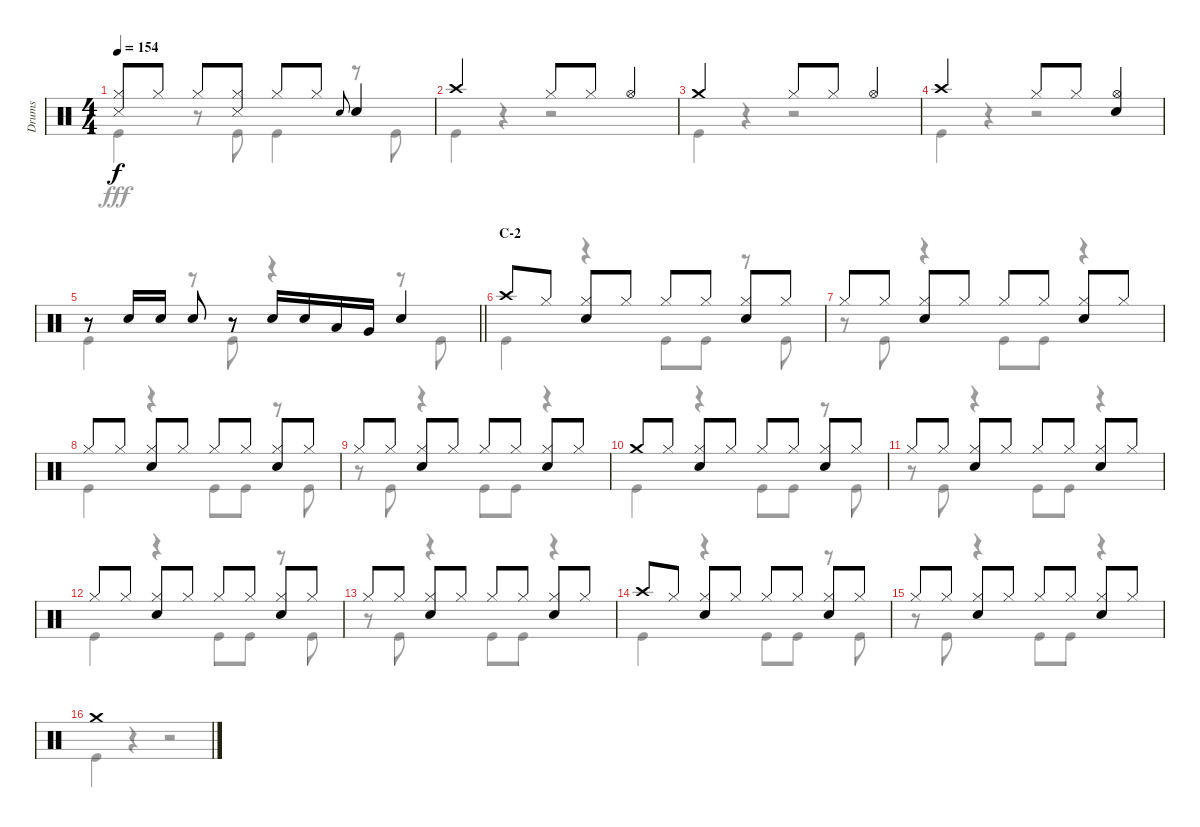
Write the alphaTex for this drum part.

\track ("Drums" "Drums") {instrument percussion}
\staff {score}
\articulation defaults
\voice
\ts (4 4)
\tempo 154
\clef neutral
\ks c
("Hi-Hat (closed)" "Snare (side stick) 3").8{dy f} "Hi-Hat (closed)".8 "Hi-Hat (closed)".8 ("Hi-Hat (closed)" "Snare (side stick) 3").8 "Hi-Hat (closed)".8 "Hi-Hat (closed)".8 "Snare (hit) 2".8{gr onbeat} "Snare (hit) 2".4 |
"Crash high (hit)".2 "Hi-Hat (closed)".8 "Hi-Hat (closed)".8 "Hi-Hat (open)".4 |
"Crash medium (hit)".2 "Hi-Hat (closed)".8 "Hi-Hat (closed)".8 "Hi-Hat (open)".4 |
"Crash high (hit)".2 "Hi-Hat (closed)".8 "Hi-Hat (closed)".8 ("Hi-Hat (open)" "Snare (hit) 2").4 |
\barLineRight lightlight
r.8 "Snare (hit) 2".16 "Snare (hit) 2".16 "Snare (hit) 2".8 r.8 "Snare (hit) 2".16 "Snare (hit) 2".16 "Low Tom (hit)".16 "Very Low Tom (hit)".16 "Snare (hit) 2".4 |
\section ("" "C-2")
"Crash high (hit)".8 "Hi-Hat (closed)".8 ("Hi-Hat (closed)" "Snare (hit) 2").8 "Hi-Hat (closed)".8 "Hi-Hat (closed)".8 "Hi-Hat (closed)".8 ("Hi-Hat (closed)" "Snare (hit) 2").8 "Hi-Hat (closed)".8 |
"Hi-Hat (closed)".8 "Hi-Hat (closed)".8 ("Hi-Hat (closed)" "Snare (hit) 2").8 "Hi-Hat (closed)".8 "Hi-Hat (closed)".8 "Hi-Hat (closed)".8 ("Hi-Hat (closed)" "Snare (hit) 2").8 "Hi-Hat (closed)".8 |
"Hi-Hat (closed)".8 "Hi-Hat (closed)".8 ("Hi-Hat (closed)" "Snare (hit) 2").8 "Hi-Hat (closed)".8 "Hi-Hat (closed)".8 "Hi-Hat (closed)".8 ("Hi-Hat (closed)" "Snare (hit) 2").8 "Hi-Hat (closed)".8 |
"Hi-Hat (closed)".8 "Hi-Hat (closed)".8 ("Hi-Hat (closed)" "Snare (hit) 2").8 "Hi-Hat (closed)".8 "Hi-Hat (closed)".8 "Hi-Hat (closed)".8 ("Hi-Hat (closed)" "Snare (hit) 2").8 "Hi-Hat (closed)".8 |
"Crash medium (hit)".8 "Hi-Hat (closed)".8 ("Hi-Hat (closed)" "Snare (hit) 2").8 "Hi-Hat (closed)".8 "Hi-Hat (closed)".8 "Hi-Hat (closed)".8 ("Hi-Hat (closed)" "Snare (hit) 2").8 "Hi-Hat (closed)".8 |
"Hi-Hat (closed)".8 "Hi-Hat (closed)".8 ("Hi-Hat (closed)" "Snare (hit) 2").8 "Hi-Hat (closed)".8 "Hi-Hat (closed)".8 "Hi-Hat (closed)".8 ("Hi-Hat (closed)" "Snare (hit) 2").8 "Hi-Hat (closed)".8 |
"Hi-Hat (closed)".8 "Hi-Hat (closed)".8 ("Hi-Hat (closed)" "Snare (hit) 2").8 "Hi-Hat (closed)".8 "Hi-Hat (closed)".8 "Hi-Hat (closed)".8 ("Hi-Hat (closed)" "Snare (hit) 2").8 "Hi-Hat (closed)".8 |
"Hi-Hat (closed)".8 "Hi-Hat (closed)".8 ("Hi-Hat (closed)" "Snare (hit) 2").8 "Hi-Hat (closed)".8 "Hi-Hat (closed)".8 "Hi-Hat (closed)".8 ("Hi-Hat (closed)" "Snare (hit) 2").8 "Hi-Hat (closed)".8 |
"Crash high (hit)".8 "Hi-Hat (closed)".8 ("Hi-Hat (closed)" "Snare (hit) 2").8 "Hi-Hat (closed)".8 "Hi-Hat (closed)".8 "Hi-Hat (closed)".8 ("Hi-Hat (closed)" "Snare (hit) 2").8 "Hi-Hat (closed)".8 |
"Hi-Hat (closed)".8 "Hi-Hat (closed)".8 ("Hi-Hat (closed)" "Snare (hit) 2").8 "Hi-Hat (closed)".8 "Hi-Hat (closed)".8 "Hi-Hat (closed)".8 ("Hi-Hat (closed)" "Snare (hit) 2").8 "Hi-Hat (closed)".8 |
"Crash medium (hit)".1
\voice
\clef neutral
\ottava regular
\simile none
\ks c "Kick (hit)".4{dy fff}
r.8 "Kick (hit)".8 "Kick (hit)".4 r.8 "Kick (hit)".8 |
"Kick (hit)".4 r.4 r.2 |
"Kick (hit)".4 r.4 r.2 |
"Kick (hit)".4 r.4 r.2 |
\barLineRight lightlight "Kick (hit)".4
r.8 "Kick (hit)".8 r.4 r.8 "Kick (hit)".8 |
"Kick (hit)".4 r.4 "Kick (hit)".8 "Kick (hit)".8 r.8 "Kick (hit)".8 |
r.8 "Kick (hit)".8 r.4 "Kick (hit)".8 "Kick (hit)".8 r.4 |
"Kick (hit)".4 r.4 "Kick (hit)".8 "Kick (hit)".8 r.8 "Kick (hit)".8 |
r.8 "Kick (hit)".8 r.4 "Kick (hit)".8 "Kick (hit)".8 r.4 |
"Kick (hit)".4 r.4 "Kick (hit)".8 "Kick (hit)".8 r.8 "Kick (hit)".8 |
r.8 "Kick (hit)".8 r.4 "Kick (hit)".8 "Kick (hit)".8 r.4 |
"Kick (hit)".4 r.4 "Kick (hit)".8 "Kick (hit)".8 r.8 "Kick (hit)".8 |
r.8 "Kick (hit)".8 r.4 "Kick (hit)".8 "Kick (hit)".8 r.4 |
"Kick (hit)".4 r.4 "Kick (hit)".8 "Kick (hit)".8 r.8 "Kick (hit)".8 |
r.8 "Kick (hit)".8 r.4 "Kick (hit)".8 "Kick (hit)".8 r.4 |
"Kick (hit)".4 r.4 r.2
